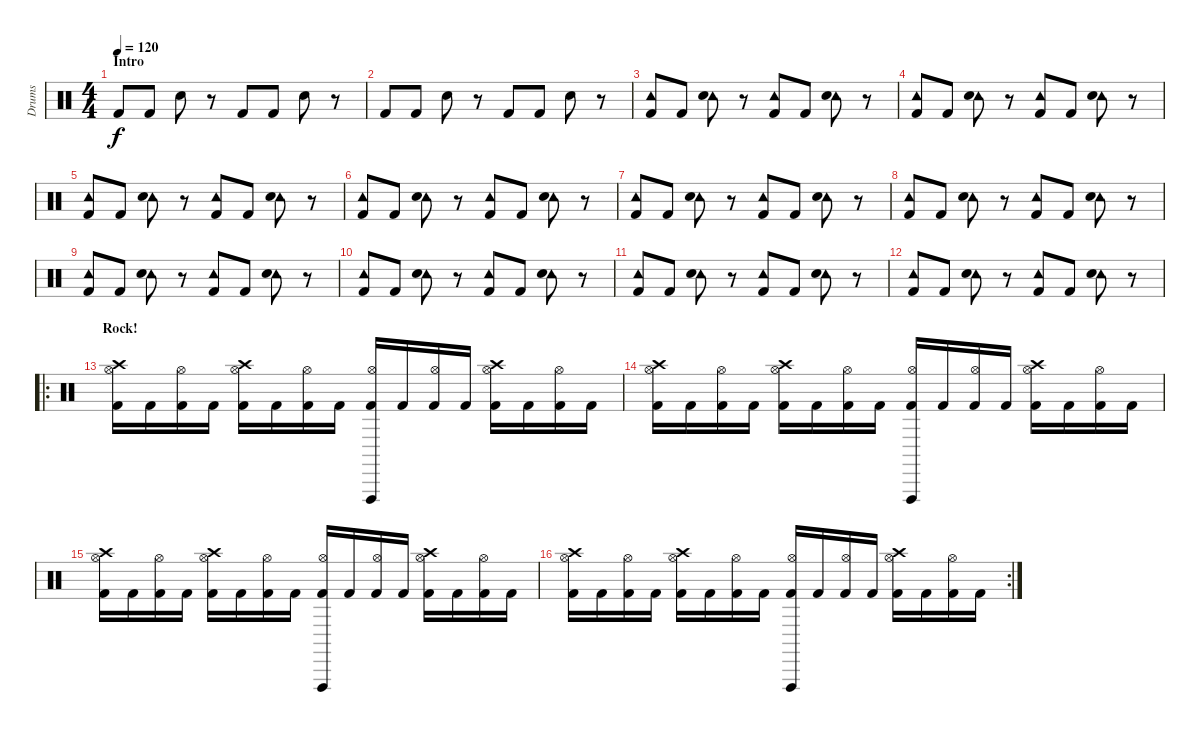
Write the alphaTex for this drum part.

\track ("Drums" "Drums") {instrument percussion}
\staff {score}
\articulation defaults
\ts (4 4)
\section ("" "Intro")
\tempo 120
\clef neutral
\ks c "Kick (hit) 2".8{dy f} "Kick (hit) 2".8 "Hand Clap (hit)".8
r.8 "Kick (hit) 2".8 "Kick (hit) 2".8 "Hand Clap (hit)".8 r.8 |
"Kick (hit) 2".8 "Kick (hit) 2".8 "Hand Clap (hit)".8 r.8 "Kick (hit) 2".8 "Kick (hit) 2".8 "Hand Clap (hit)".8 r.8 |
("Tambourine (hit)" "Kick (hit) 2").8 "Kick (hit) 2".8 ("Tambourine (hit)" "Hand Clap (hit)").8 r.8 ("Tambourine (hit)" "Kick (hit) 2").8 "Kick (hit) 2".8 ("Tambourine (hit)" "Hand Clap (hit)").8 r.8 |
("Tambourine (hit)" "Kick (hit) 2").8 "Kick (hit) 2".8 ("Tambourine (hit)" "Hand Clap (hit)").8 r.8 ("Tambourine (hit)" "Kick (hit) 2").8 "Kick (hit) 2".8 ("Tambourine (hit)" "Hand Clap (hit)").8 r.8 |
("Tambourine (hit)" "Kick (hit) 2").8 "Kick (hit) 2".8 ("Tambourine (hit)" "Hand Clap (hit)").8 r.8 ("Tambourine (hit)" "Kick (hit) 2").8 "Kick (hit) 2".8 ("Tambourine (hit)" "Hand Clap (hit)").8 r.8 |
("Tambourine (hit)" "Kick (hit) 2").8 "Kick (hit) 2".8 ("Tambourine (hit)" "Hand Clap (hit)").8 r.8 ("Tambourine (hit)" "Kick (hit) 2").8 "Kick (hit) 2".8 ("Tambourine (hit)" "Hand Clap (hit)").8 r.8 |
("Tambourine (hit)" "Kick (hit) 2").8 "Kick (hit) 2".8 ("Tambourine (hit)" "Hand Clap (hit)").8 r.8 ("Tambourine (hit)" "Kick (hit) 2").8 "Kick (hit) 2".8 ("Tambourine (hit)" "Hand Clap (hit)").8 r.8 |
("Tambourine (hit)" "Kick (hit) 2").8 "Kick (hit) 2".8 ("Tambourine (hit)" "Hand Clap (hit)").8 r.8 ("Tambourine (hit)" "Kick (hit) 2").8 "Kick (hit) 2".8 ("Tambourine (hit)" "Hand Clap (hit)").8 r.8 |
("Tambourine (hit)" "Kick (hit) 2").8 "Kick (hit) 2".8 ("Tambourine (hit)" "Hand Clap (hit)").8 r.8 ("Tambourine (hit)" "Kick (hit) 2").8 "Kick (hit) 2".8 ("Tambourine (hit)" "Hand Clap (hit)").8 r.8 |
("Tambourine (hit)" "Kick (hit) 2").8 "Kick (hit) 2".8 ("Tambourine (hit)" "Hand Clap (hit)").8 r.8 ("Tambourine (hit)" "Kick (hit) 2").8 "Kick (hit) 2".8 ("Tambourine (hit)" "Hand Clap (hit)").8 r.8 |
("Tambourine (hit)" "Kick (hit) 2").8 "Kick (hit) 2".8 ("Tambourine (hit)" "Hand Clap (hit)").8 r.8 ("Tambourine (hit)" "Kick (hit) 2").8 "Kick (hit) 2".8 ("Tambourine (hit)" "Hand Clap (hit)").8 r.8 |
("Tambourine (hit)" "Kick (hit) 2").8 "Kick (hit) 2".8 ("Tambourine (hit)" "Hand Clap (hit)").8 r.8 ("Tambourine (hit)" "Kick (hit) 2").8 "Kick (hit) 2".8 ("Tambourine (hit)" "Hand Clap (hit)").8 r.8 |
\ro
\section ("" "Rock!")
("Crash high (hit)" "Hi-Hat (open)" "Kick (hit) 2").16 "Kick (hit) 2".16 ("Hi-Hat (open)" "Kick (hit) 2").16 "Kick (hit) 2".16 ("Crash high (hit)" "Hi-Hat (open)" "Kick (hit) 2").16 "Kick (hit) 2".16 ("Hi-Hat (open)" "Kick (hit) 2").16 "Kick (hit) 2".16 ("Vibraslap (hit)" "Hi-Hat (open)" "Kick (hit) 2").16 "Kick (hit) 2".16 ("Hi-Hat (open)" "Kick (hit) 2").16 "Kick (hit) 2".16 ("Crash high (hit)" "Hi-Hat (open)" "Kick (hit) 2").16 "Kick (hit) 2".16 ("Hi-Hat (open)" "Kick (hit) 2").16 "Kick (hit) 2".16 |
("Crash high (hit)" "Hi-Hat (open)" "Kick (hit) 2").16 "Kick (hit) 2".16 ("Hi-Hat (open)" "Kick (hit) 2").16 "Kick (hit) 2".16 ("Crash high (hit)" "Hi-Hat (open)" "Kick (hit) 2").16 "Kick (hit) 2".16 ("Hi-Hat (open)" "Kick (hit) 2").16 "Kick (hit) 2".16 ("Vibraslap (hit)" "Hi-Hat (open)" "Kick (hit) 2").16 "Kick (hit) 2".16 ("Hi-Hat (open)" "Kick (hit) 2").16 "Kick (hit) 2".16 ("Crash high (hit)" "Hi-Hat (open)" "Kick (hit) 2").16 "Kick (hit) 2".16 ("Hi-Hat (open)" "Kick (hit) 2").16 "Kick (hit) 2".16 |
("Crash high (hit)" "Hi-Hat (open)" "Kick (hit) 2").16 "Kick (hit) 2".16 ("Hi-Hat (open)" "Kick (hit) 2").16 "Kick (hit) 2".16 ("Crash high (hit)" "Hi-Hat (open)" "Kick (hit) 2").16 "Kick (hit) 2".16 ("Hi-Hat (open)" "Kick (hit) 2").16 "Kick (hit) 2".16 ("Vibraslap (hit)" "Hi-Hat (open)" "Kick (hit) 2").16 "Kick (hit) 2".16 ("Hi-Hat (open)" "Kick (hit) 2").16 "Kick (hit) 2".16 ("Crash high (hit)" "Hi-Hat (open)" "Kick (hit) 2").16 "Kick (hit) 2".16 ("Hi-Hat (open)" "Kick (hit) 2").16 "Kick (hit) 2".16 |
\rc 2
("Crash high (hit)" "Hi-Hat (open)" "Kick (hit) 2").16 "Kick (hit) 2".16 ("Hi-Hat (open)" "Kick (hit) 2").16 "Kick (hit) 2".16 ("Crash high (hit)" "Hi-Hat (open)" "Kick (hit) 2").16 "Kick (hit) 2".16 ("Hi-Hat (open)" "Kick (hit) 2").16 "Kick (hit) 2".16 ("Vibraslap (hit)" "Hi-Hat (open)" "Kick (hit) 2").16 "Kick (hit) 2".16 ("Hi-Hat (open)" "Kick (hit) 2").16 "Kick (hit) 2".16 ("Crash high (hit)" "Hi-Hat (open)" "Kick (hit) 2").16 "Kick (hit) 2".16 ("Hi-Hat (open)" "Kick (hit) 2").16 "Kick (hit) 2".16
